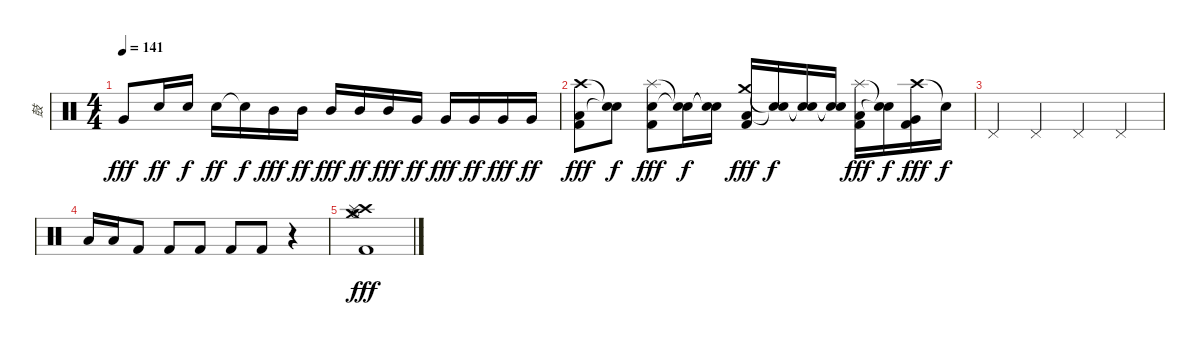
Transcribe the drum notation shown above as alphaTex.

\track ("鼓" "鼓") {instrument percussion}
\staff {score}
\articulation defaults
\ts (4 4)
\tempo 141
\clef neutral
\ks c "Very Low Tom (hit)".8{dy fff} "Snare (hit) 2".16{dy ff} "Snare (hit) 2".16{dy f} "Snare (hit) 2".16{dy ff} "Snare (hit)"{t}.16{dy f} "Mid Tom (hit)".16{dy fff} "Mid Tom (hit)".16{dy ff} "Mid Tom (hit)".16{dy fff} "Mid Tom (hit)".16{dy ff} "Mid Tom (hit)".16{dy fff} "Very Low Tom (hit)".16{dy ff} "Very Low Tom (hit)".16{dy fff} "Very Low Tom (hit)".16{dy ff} "Very Low Tom (hit)".16{dy fff} "Very Low Tom (hit)".16{dy ff}
|
("Crash high (hit)" "Low Floor Tom (hit)" "Kick (hit) 2").8{dy fff} ("Snare (hit)"{t} "Snare (hit)"{t}).8{dy f} ("Splash (hit)" "Snare (hit) 2" "Kick (hit) 2").8{dy fff} ("Snare (hit)"{t} "Snare (hit)"{t}).16{dy f} ("Snare (hit)"{t} "Snare (hit)"{t}).16 ("Crash medium (hit)" "Low Tom (hit)" "Kick (hit) 2").16{dy fff} ("Snare (hit)"{t} "Snare (hit)"{t}).16{dy f} ("Snare (hit)"{t} "Snare (hit)"{t}).16 ("Snare (hit)"{t} "Snare (hit)"{t}).16 ("Splash (hit)" "Low Floor Tom (hit)" "Kick (hit) 2").16{dy fff} ("Snare (hit)"{t} "Snare (hit)"{t}).16{dy f} ("Crash high (hit)" "Very Low Tom (hit)" "Kick (hit) 2").16{dy fff} "Snare (hit)"{t}.16{dy f} |
"Pedal Hi-Hat (hit)".4 "Pedal Hi-Hat (hit)".4 "Pedal Hi-Hat (hit)".4 "Pedal Hi-Hat (hit)".4 |
"Low Tom (hit)".16 "Low Tom (hit)".16 "Kick (hit) 2".8 "Kick (hit) 2".8 "Kick (hit) 2".8 "Kick (hit) 2".8 "Kick (hit) 2".8 r.4 |
("Crash medium (hit)" "Crash high (hit)" "Splash (hit)" "Hi-Hat (open)" "Kick (hit) 2").1{dy fff}
